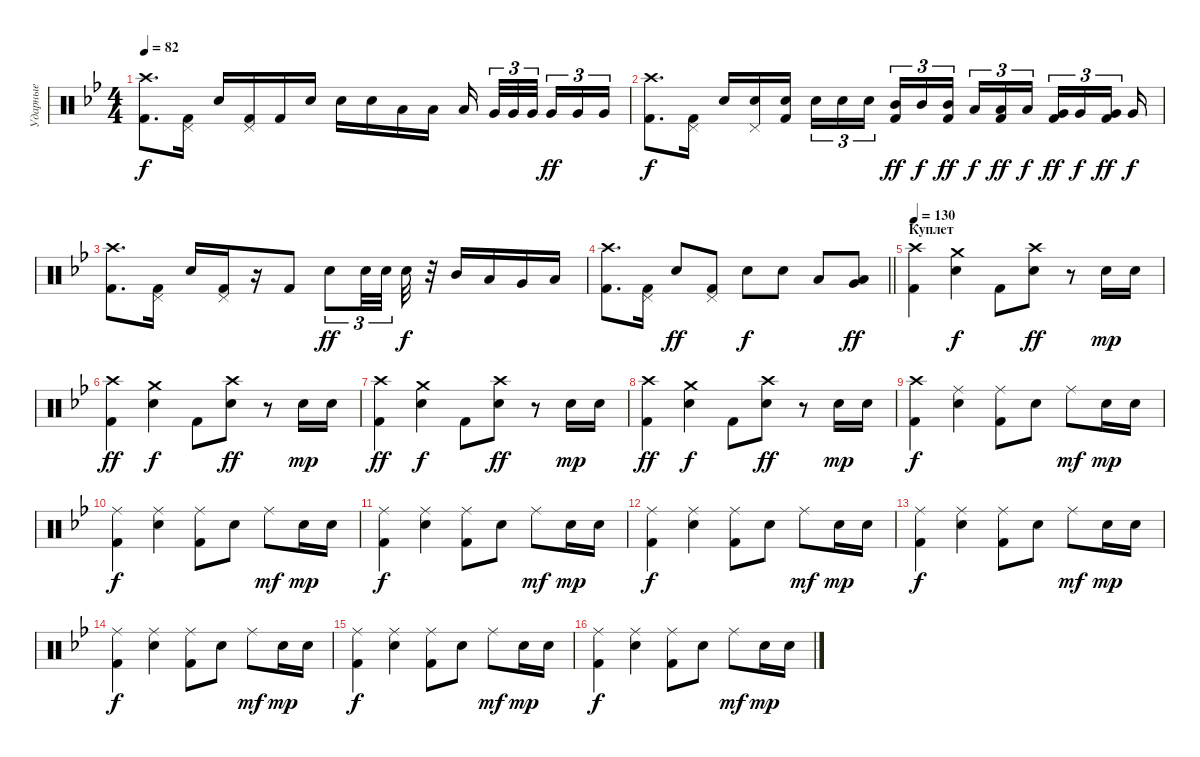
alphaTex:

\track ("Ударные" "Ударные") {instrument percussion}
\staff {score}
\articulation defaults
\ts (4 4)
\tempo 82
\clef neutral
\ks gminor
("Crash high (hit)" "Kick (hit) 2").8{d dy f} ("Pedal Hi-Hat (hit)" "Kick (hit) 2").16 "Snare (hit) 2".16 ("Pedal Hi-Hat (hit)" "Kick (hit) 2").16 "Kick (hit) 2".16 "Snare (hit) 2".16 "Snare (hit) 2".16 "Snare (hit) 2".16 "Low Tom (hit)".16 "Low Tom (hit)".16 "Low Tom (hit)".16{beam splitsecondary} "Very Low Tom (hit)".32{tu (3 2)} "Very Low Tom (hit)".32{tu (3 2)} "Very Low Tom (hit)".32{tu (3 2) beam splitsecondary} "Very Low Tom (hit)".16{tu (3 2) dy ff} "Very Low Tom (hit)".16{tu (3 2)} "Very Low Tom (hit)".16{tu (3 2)} |
("Crash high (hit)" "Kick (hit) 2").8{d dy f} ("Pedal Hi-Hat (hit)" "Kick (hit) 2").16 "Snare (hit) 2".16 ("Pedal Hi-Hat (hit)" "Snare (hit) 2").16 ("Snare (hit) 2" "Kick (hit) 2").16{beam splitsecondary} "Snare (hit) 2".16{tu (3 2)} "Snare (hit) 2".16{tu (3 2)} "Snare (hit) 2".16{tu (3 2) beam splitsecondary} ("Mid Tom (hit)" "Kick (hit) 2").16{tu (3 2) dy ff} "Mid Tom (hit)".16{tu (3 2) dy f} ("Mid Tom (hit)" "Kick (hit) 2").16{tu (3 2) dy ff beam splitsecondary} "Low Tom (hit)".16{tu (3 2) dy f} ("Low Tom (hit)" "Kick (hit) 2").16{tu (3 2) dy ff} "Low Tom (hit)".16{tu (3 2) dy f beam splitsecondary} ("Very Low Tom (hit)" "Kick (hit) 2").16{tu (3 2) dy ff} "Very Low Tom (hit)".16{tu (3 2) dy f} ("Very Low Tom (hit)" "Kick (hit) 2").16{tu (3 2) dy ff beam splitsecondary} "Very Low Tom (hit)".16{dy f} |
("Crash high (hit)" "Kick (hit) 2").8{d} ("Pedal Hi-Hat (hit)" "Kick (hit) 2").16 "Snare (hit) 2".16 ("Pedal Hi-Hat (hit)" "Kick (hit) 2").16 r.16 "Kick (hit) 2".8 "Snare (hit) 2".8{tu (3 2) dy ff} "Snare (hit) 2".32{tu (3 2)} "Snare (hit) 2".32{tu (3 2) beam splitsecondary} "Snare (hit) 2".32{dy f} r.32 "Mid Tom (hit)".16 "Low Tom (hit)".16 "Very Low Tom (hit)".16 "Low Tom (hit)".16 |
\barLineRight lightlight
("Crash high (hit)" "Kick (hit) 2").8{d} ("Pedal Hi-Hat (hit)" "Kick (hit) 2").16 "Snare (hit) 2".8{dy ff} ("Pedal Hi-Hat (hit)" "Kick (hit) 2").8 "Snare (hit) 2".8{dy f} "Snare (hit) 2".8 "Low Tom (hit)".8 ("Very Low Tom (hit)" "Low Tom (hit)").8{dy ff} |
\section ("" "Куплет")
\tempo 130
("Crash high (hit)" "Kick (hit) 2").4 ("Crash medium (hit)" "Snare (hit) 2").4{dy f} "Kick (hit) 2".8 ("Crash high (hit)" "Snare (hit) 2").8{dy ff} r.8 "Snare (hit) 2".16{dy mp} "Snare (hit) 2".16 |
("Crash high (hit)" "Kick (hit) 2").4{dy ff} ("Crash medium (hit)" "Snare (hit) 2").4{dy f} "Kick (hit) 2".8 ("Crash high (hit)" "Snare (hit) 2").8{dy ff} r.8 "Snare (hit) 2".16{dy mp} "Snare (hit) 2".16 |
("Crash high (hit)" "Kick (hit) 2").4{dy ff} ("Crash medium (hit)" "Snare (hit) 2").4{dy f} "Kick (hit) 2".8 ("Crash high (hit)" "Snare (hit) 2").8{dy ff} r.8 "Snare (hit) 2".16{dy mp} "Snare (hit) 2".16 |
("Crash high (hit)" "Kick (hit) 2").4{dy ff} ("Crash medium (hit)" "Snare (hit) 2").4{dy f} "Kick (hit) 2".8 ("Crash high (hit)" "Snare (hit) 2").8{dy ff} r.8 "Snare (hit) 2".16{dy mp} "Snare (hit) 2".16 |
("Crash high (hit)" "Kick (hit) 2").4{dy f} ("Ride (middle)" "Snare (hit) 2").4 ("Ride (middle)" "Kick (hit) 2").8 "Snare (hit) 2".8 "Ride (middle)".8{dy mf} "Snare (hit) 2".16{dy mp} "Snare (hit) 2".16 |
("Ride (middle)" "Kick (hit) 2").4{dy f} ("Ride (middle)" "Snare (hit) 2").4 ("Ride (middle)" "Kick (hit) 2").8 "Snare (hit) 2".8 "Ride (middle)".8{dy mf} "Snare (hit) 2".16{dy mp} "Snare (hit) 2".16 |
("Ride (middle)" "Kick (hit) 2").4{dy f} ("Ride (middle)" "Snare (hit) 2").4 ("Ride (middle)" "Kick (hit) 2").8 "Snare (hit) 2".8 "Ride (middle)".8{dy mf} "Snare (hit) 2".16{dy mp} "Snare (hit) 2".16 |
("Ride (middle)" "Kick (hit) 2").4{dy f} ("Ride (middle)" "Snare (hit) 2").4 ("Ride (middle)" "Kick (hit) 2").8 "Snare (hit) 2".8 "Ride (middle)".8{dy mf} "Snare (hit) 2".16{dy mp} "Snare (hit) 2".16 |
("Ride (middle)" "Kick (hit) 2").4{dy f} ("Ride (middle)" "Snare (hit) 2").4 ("Ride (middle)" "Kick (hit) 2").8 "Snare (hit) 2".8 "Ride (middle)".8{dy mf} "Snare (hit) 2".16{dy mp} "Snare (hit) 2".16 |
("Ride (middle)" "Kick (hit) 2").4{dy f} ("Ride (middle)" "Snare (hit) 2").4 ("Ride (middle)" "Kick (hit) 2").8 "Snare (hit) 2".8 "Ride (middle)".8{dy mf} "Snare (hit) 2".16{dy mp} "Snare (hit) 2".16 |
("Ride (middle)" "Kick (hit) 2").4{dy f} ("Ride (middle)" "Snare (hit) 2").4 ("Ride (middle)" "Kick (hit) 2").8 "Snare (hit) 2".8 "Ride (middle)".8{dy mf} "Snare (hit) 2".16{dy mp} "Snare (hit) 2".16 |
("Ride (middle)" "Kick (hit) 2").4{dy f} ("Ride (middle)" "Snare (hit) 2").4 ("Ride (middle)" "Kick (hit) 2").8 "Snare (hit) 2".8 "Ride (middle)".8{dy mf} "Snare (hit) 2".16{dy mp} "Snare (hit) 2".16
